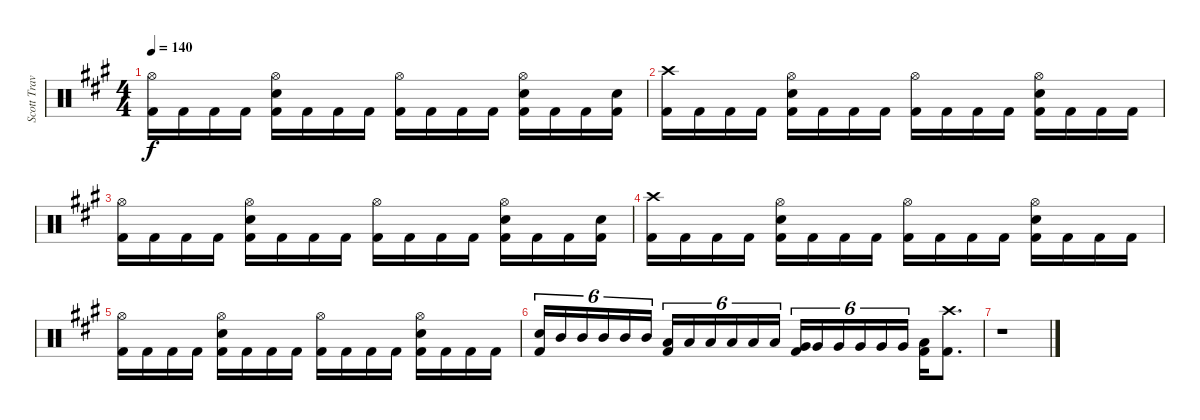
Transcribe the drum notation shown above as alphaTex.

\track ("Scott Travis" "Scott Trav") {instrument percussion}
\staff {score}
\articulation defaults
\ts (4 4)
\tempo 140
\clef neutral
\ks f#minor
("Hi-Hat (open)" "Kick (hit) 2").16{dy f} "Kick (hit) 2".16 "Kick (hit) 2".16 "Kick (hit) 2".16 ("Hi-Hat (open)" "Electric Snare (hit)" "Kick (hit) 2").16 "Kick (hit) 2".16 "Kick (hit) 2".16 "Kick (hit) 2".16 ("Hi-Hat (open)" "Kick (hit) 2").16 "Kick (hit) 2".16 "Kick (hit) 2".16 "Kick (hit) 2".16 ("Hi-Hat (open)" "Electric Snare (hit)" "Kick (hit) 2").16 "Kick (hit) 2".16 "Kick (hit) 2".16 ("Electric Snare (hit)" "Kick (hit) 2").16 |
("Crash high (hit)" "Kick (hit) 2").16 "Kick (hit) 2".16 "Kick (hit) 2".16 "Kick (hit) 2".16 ("Hi-Hat (open)" "Electric Snare (hit)" "Kick (hit) 2").16 "Kick (hit) 2".16 "Kick (hit) 2".16 "Kick (hit) 2".16 ("Hi-Hat (open)" "Kick (hit) 2").16 "Kick (hit) 2".16 "Kick (hit) 2".16 "Kick (hit) 2".16 ("Hi-Hat (open)" "Electric Snare (hit)" "Kick (hit) 2").16 "Kick (hit) 2".16 "Kick (hit) 2".16 "Kick (hit) 2".16 |
("Hi-Hat (open)" "Kick (hit) 2").16 "Kick (hit) 2".16 "Kick (hit) 2".16 "Kick (hit) 2".16 ("Hi-Hat (open)" "Electric Snare (hit)" "Kick (hit) 2").16 "Kick (hit) 2".16 "Kick (hit) 2".16 "Kick (hit) 2".16 ("Hi-Hat (open)" "Kick (hit) 2").16 "Kick (hit) 2".16 "Kick (hit) 2".16 "Kick (hit) 2".16 ("Hi-Hat (open)" "Electric Snare (hit)" "Kick (hit) 2").16 "Kick (hit) 2".16 "Kick (hit) 2".16 ("Electric Snare (hit)" "Kick (hit) 2").16 |
("Crash high (hit)" "Kick (hit) 2").16 "Kick (hit) 2".16 "Kick (hit) 2".16 "Kick (hit) 2".16 ("Hi-Hat (open)" "Electric Snare (hit)" "Kick (hit) 2").16 "Kick (hit) 2".16 "Kick (hit) 2".16 "Kick (hit) 2".16 ("Hi-Hat (open)" "Kick (hit) 2").16 "Kick (hit) 2".16 "Kick (hit) 2".16 "Kick (hit) 2".16 ("Hi-Hat (open)" "Electric Snare (hit)" "Kick (hit) 2").16 "Kick (hit) 2".16 "Kick (hit) 2".16 "Kick (hit) 2".16 |
("Hi-Hat (open)" "Kick (hit) 2").16 "Kick (hit) 2".16 "Kick (hit) 2".16 "Kick (hit) 2".16 ("Hi-Hat (open)" "Electric Snare (hit)" "Kick (hit) 2").16 "Kick (hit) 2".16 "Kick (hit) 2".16 "Kick (hit) 2".16 ("Hi-Hat (open)" "Kick (hit) 2").16 "Kick (hit) 2".16 "Kick (hit) 2".16 "Kick (hit) 2".16 ("Hi-Hat (open)" "Electric Snare (hit)" "Kick (hit) 2").16 "Kick (hit) 2".16 "Kick (hit) 2".16 "Kick (hit) 2".16 |
("Electric Snare (hit)" "Kick (hit) 2").16{tu (6 4)} "Mid Tom (hit)".16{tu (6 4)} "Mid Tom (hit)".16{tu (6 4)} "Mid Tom (hit)".16{tu (6 4)} "Mid Tom (hit)".16{tu (6 4)} "Mid Tom (hit)".16{tu (6 4)} ("Low Tom (hit)" "Kick (hit) 2").16{tu (6 4)} "Low Tom (hit)".16{tu (6 4)} "Low Tom (hit)".16{tu (6 4)} "Low Tom (hit)".16{tu (6 4)} "Low Tom (hit)".16{tu (6 4)} "Low Tom (hit)".16{tu (6 4)} ("Very Low Tom (hit)" "Kick (hit) 2").16{tu (6 4)} "Very Low Tom (hit)".16{tu (6 4)} "Very Low Tom (hit)".16{tu (6 4)} "Very Low Tom (hit)".16{tu (6 4)} "Very Low Tom (hit)".16{tu (6 4)} "Very Low Tom (hit)".16{tu (6 4)} ("Low Floor Tom (hit)" "Kick (hit) 2").16 ("Crash high (hit)" "Kick (hit) 2").8{d} |
r.1
